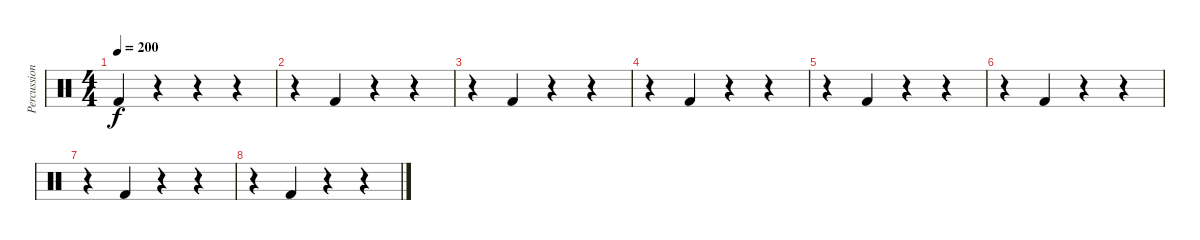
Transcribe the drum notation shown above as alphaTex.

\track ("Percussion" "Percussion") {instrument percussion}
\staff {score}
\articulation defaults
\ts (4 4)
\tempo 200
\clef neutral
\ks c "Kick (hit) 2".4{dy f}
r.4 r.4 r.4 |
r.4 "Kick (hit) 2".4 r.4 r.4 |
r.4 "Kick (hit) 2".4 r.4 r.4 |
r.4 "Kick (hit) 2".4 r.4 r.4 |
r.4 "Kick (hit) 2".4 r.4 r.4 |
r.4 "Kick (hit) 2".4 r.4 r.4 |
r.4 "Kick (hit) 2".4 r.4 r.4 |
r.4 "Kick (hit) 2".4 r.4 r.4
